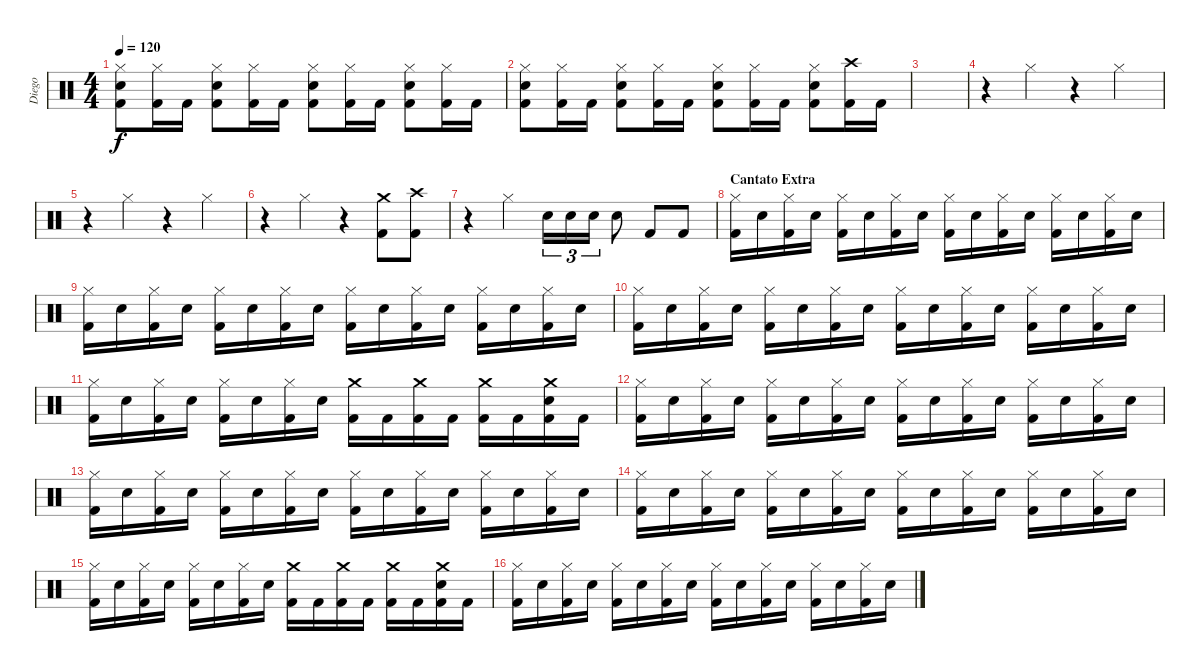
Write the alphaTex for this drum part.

\track ("Diego" "Diego") {instrument percussion}
\staff {score}
\articulation defaults
\ts (4 4)
\tempo 120
\clef neutral
\ks c
("Hi-Hat (closed)" "Snare (hit) 2" "Kick (hit) 2").8{dy f} ("Hi-Hat (closed)" "Kick (hit) 2").16 "Kick (hit) 2".16 ("Hi-Hat (closed)" "Snare (hit) 2" "Kick (hit) 2").8 ("Hi-Hat (closed)" "Kick (hit) 2").16 "Kick (hit) 2".16 ("Hi-Hat (closed)" "Snare (hit) 2" "Kick (hit) 2").8 ("Hi-Hat (closed)" "Kick (hit) 2").16 "Kick (hit) 2".16 ("Hi-Hat (closed)" "Snare (hit) 2" "Kick (hit) 2").8 ("Hi-Hat (closed)" "Kick (hit) 2").16 "Kick (hit) 2".16 |
("Hi-Hat (closed)" "Snare (hit) 2" "Kick (hit) 2").8 ("Hi-Hat (closed)" "Kick (hit) 2").16 "Kick (hit) 2".16 ("Hi-Hat (closed)" "Snare (hit) 2" "Kick (hit) 2").8 ("Hi-Hat (closed)" "Kick (hit) 2").16 "Kick (hit) 2".16 ("Hi-Hat (closed)" "Snare (hit) 2" "Kick (hit) 2").8 ("Hi-Hat (closed)" "Kick (hit) 2").16 "Kick (hit) 2".16 ("Hi-Hat (closed)" "Snare (hit) 2" "Kick (hit) 2").8 ("Crash high (hit)" "Kick (hit) 2").16 "Kick (hit) 2".16 |
|
r.4 "Hi-Hat (closed)".4 r.4 "Hi-Hat (closed)".4 |
r.4 "Hi-Hat (closed)".4 r.4 "Hi-Hat (closed)".4 |
r.4 "Hi-Hat (closed)".4 r.4 ("Crash medium (hit)" "Kick (hit) 2").8 ("Crash high (hit)" "Kick (hit) 2").8 |
r.4 "Hi-Hat (closed)".4 "Snare (hit) 2".16{tu (3 2)} "Snare (hit) 2".16{tu (3 2)} "Snare (hit) 2".16{tu (3 2)} "Snare (hit) 2".8 "Kick (hit) 2".8 "Kick (hit) 2".8 |
\section ("" "Cantato Extra")
("Hi-Hat (closed)" "Kick (hit) 2").16 "Snare (hit) 2".16 ("Hi-Hat (closed)" "Kick (hit) 2").16 "Snare (hit) 2".16 ("Hi-Hat (closed)" "Kick (hit) 2").16 "Snare (hit) 2".16 ("Hi-Hat (closed)" "Kick (hit) 2").16 "Snare (hit) 2".16 ("Hi-Hat (closed)" "Kick (hit) 2").16 "Snare (hit) 2".16 ("Hi-Hat (closed)" "Kick (hit) 2").16 "Snare (hit) 2".16 ("Hi-Hat (closed)" "Kick (hit) 2").16 "Snare (hit) 2".16 ("Hi-Hat (closed)" "Kick (hit) 2").16 "Snare (hit) 2".16 |
("Hi-Hat (closed)" "Kick (hit) 2").16 "Snare (hit) 2".16 ("Hi-Hat (closed)" "Kick (hit) 2").16 "Snare (hit) 2".16 ("Hi-Hat (closed)" "Kick (hit) 2").16 "Snare (hit) 2".16 ("Hi-Hat (closed)" "Kick (hit) 2").16 "Snare (hit) 2".16 ("Hi-Hat (closed)" "Kick (hit) 2").16 "Snare (hit) 2".16 ("Hi-Hat (closed)" "Kick (hit) 2").16 "Snare (hit) 2".16 ("Hi-Hat (closed)" "Kick (hit) 2").16 "Snare (hit) 2".16 ("Hi-Hat (closed)" "Kick (hit) 2").16 "Snare (hit) 2".16 |
("Hi-Hat (closed)" "Kick (hit) 2").16 "Snare (hit) 2".16 ("Hi-Hat (closed)" "Kick (hit) 2").16 "Snare (hit) 2".16 ("Hi-Hat (closed)" "Kick (hit) 2").16 "Snare (hit) 2".16 ("Hi-Hat (closed)" "Kick (hit) 2").16 "Snare (hit) 2".16 ("Hi-Hat (closed)" "Kick (hit) 2").16 "Snare (hit) 2".16 ("Hi-Hat (closed)" "Kick (hit) 2").16 "Snare (hit) 2".16 ("Hi-Hat (closed)" "Kick (hit) 2").16 "Snare (hit) 2".16 ("Hi-Hat (closed)" "Kick (hit) 2").16 "Snare (hit) 2".16 |
("Hi-Hat (closed)" "Kick (hit) 2").16 "Snare (hit) 2".16 ("Hi-Hat (closed)" "Kick (hit) 2").16 "Snare (hit) 2".16 ("Hi-Hat (closed)" "Kick (hit) 2").16 "Snare (hit) 2".16 ("Hi-Hat (closed)" "Kick (hit) 2").16 "Snare (hit) 2".16 ("Crash medium (hit)" "Kick (hit) 2").16 "Kick (hit) 2".16 ("Crash medium (hit)" "Kick (hit) 2").16 "Kick (hit) 2".16 ("Crash medium (hit)" "Kick (hit) 2").16 "Kick (hit) 2".16 ("Crash medium (hit)" "Snare (hit) 2" "Kick (hit) 2").16 "Kick (hit) 2".16 |
("Hi-Hat (closed)" "Kick (hit) 2").16 "Snare (hit) 2".16 ("Hi-Hat (closed)" "Kick (hit) 2").16 "Snare (hit) 2".16 ("Hi-Hat (closed)" "Kick (hit) 2").16 "Snare (hit) 2".16 ("Hi-Hat (closed)" "Kick (hit) 2").16 "Snare (hit) 2".16 ("Hi-Hat (closed)" "Kick (hit) 2").16 "Snare (hit) 2".16 ("Hi-Hat (closed)" "Kick (hit) 2").16 "Snare (hit) 2".16 ("Hi-Hat (closed)" "Kick (hit) 2").16 "Snare (hit) 2".16 ("Hi-Hat (closed)" "Kick (hit) 2").16 "Snare (hit) 2".16 |
("Hi-Hat (closed)" "Kick (hit) 2").16 "Snare (hit) 2".16 ("Hi-Hat (closed)" "Kick (hit) 2").16 "Snare (hit) 2".16 ("Hi-Hat (closed)" "Kick (hit) 2").16 "Snare (hit) 2".16 ("Hi-Hat (closed)" "Kick (hit) 2").16 "Snare (hit) 2".16 ("Hi-Hat (closed)" "Kick (hit) 2").16 "Snare (hit) 2".16 ("Hi-Hat (closed)" "Kick (hit) 2").16 "Snare (hit) 2".16 ("Hi-Hat (closed)" "Kick (hit) 2").16 "Snare (hit) 2".16 ("Hi-Hat (closed)" "Kick (hit) 2").16 "Snare (hit) 2".16 |
("Hi-Hat (closed)" "Kick (hit) 2").16 "Snare (hit) 2".16 ("Hi-Hat (closed)" "Kick (hit) 2").16 "Snare (hit) 2".16 ("Hi-Hat (closed)" "Kick (hit) 2").16 "Snare (hit) 2".16 ("Hi-Hat (closed)" "Kick (hit) 2").16 "Snare (hit) 2".16 ("Hi-Hat (closed)" "Kick (hit) 2").16 "Snare (hit) 2".16 ("Hi-Hat (closed)" "Kick (hit) 2").16 "Snare (hit) 2".16 ("Hi-Hat (closed)" "Kick (hit) 2").16 "Snare (hit) 2".16 ("Hi-Hat (closed)" "Kick (hit) 2").16 "Snare (hit) 2".16 |
("Hi-Hat (closed)" "Kick (hit) 2").16 "Snare (hit) 2".16 ("Hi-Hat (closed)" "Kick (hit) 2").16 "Snare (hit) 2".16 ("Hi-Hat (closed)" "Kick (hit) 2").16 "Snare (hit) 2".16 ("Hi-Hat (closed)" "Kick (hit) 2").16 "Snare (hit) 2".16 ("Crash medium (hit)" "Kick (hit) 2").16 "Kick (hit) 2".16 ("Crash medium (hit)" "Kick (hit) 2").16 "Kick (hit) 2".16 ("Crash medium (hit)" "Kick (hit) 2").16 "Kick (hit) 2".16 ("Crash medium (hit)" "Snare (hit) 2" "Kick (hit) 2").16 "Kick (hit) 2".16 |
("Hi-Hat (closed)" "Kick (hit) 2").16 "Snare (hit) 2".16 ("Hi-Hat (closed)" "Kick (hit) 2").16 "Snare (hit) 2".16 ("Hi-Hat (closed)" "Kick (hit) 2").16 "Snare (hit) 2".16 ("Hi-Hat (closed)" "Kick (hit) 2").16 "Snare (hit) 2".16 ("Hi-Hat (closed)" "Kick (hit) 2").16 "Snare (hit) 2".16 ("Hi-Hat (closed)" "Kick (hit) 2").16 "Snare (hit) 2".16 ("Hi-Hat (closed)" "Kick (hit) 2").16 "Snare (hit) 2".16 ("Hi-Hat (closed)" "Kick (hit) 2").16 "Snare (hit) 2".16
